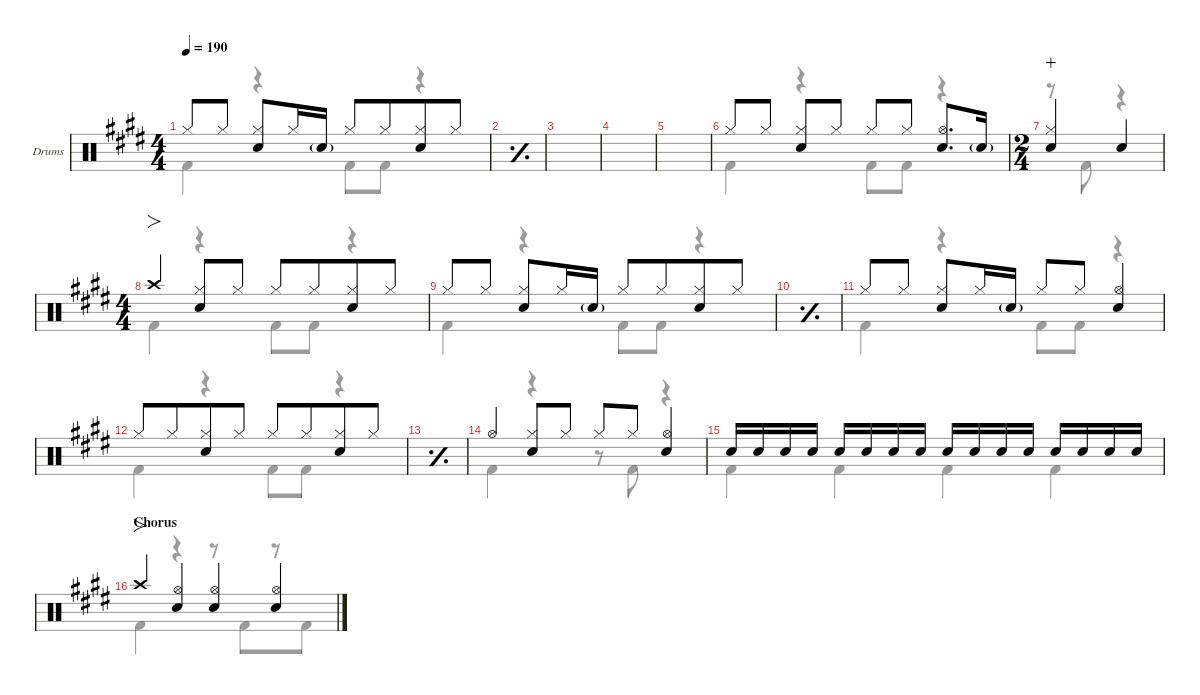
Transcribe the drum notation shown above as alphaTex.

\defaultSystemsLayout 4
\hideDynamics
\bracketExtendMode nobrackets
\firstSystemTrackNameOrientation horizontal
\track ("Drums" "Drums") {defaultSystemsLayout 4 instrument percussion}
\staff {score}
\articulation defaults
\voice
\ts (4 4)
\tempo 190
\clef neutral
\scale
0.244461
\ks e "Hi-Hat (closed)"{acc forcenatural}.8{dy f beam Up} "Hi-Hat (closed)"{acc forcenatural}.8{dy mf beam Up beam split}
("Hi-Hat (closed)"{acc forcenatural} "Snare (hit) 2"{acc forcenatural}).8{dy f beam Up} "Hi-Hat (closed)"{acc forcenatural}.16{dy mf beam Up} "Snare (hit) 2"{g acc forcenatural}.16{beam Up} "Hi-Hat (closed)"{acc forcenatural}.8{dy f beam Up beam merge} "Hi-Hat (closed)"{acc forcenatural}.8{dy mf beam Up beam merge} ("Hi-Hat (closed)"{acc forcenatural} "Snare (hit) 2"{acc forcenatural}).8{dy f beam Up beam merge} "Hi-Hat (closed)"{acc forcenatural}.8{dy mf beam Up beam split} |
\simile simple
\scale
0.24446 |
\scale
0.244461 |
\scale
0.266618 |
\scale
0.24446 |
\simile none
\scale
0.24446 "Hi-Hat (closed)"{acc forcenatural}.8{dy f beam Up} "Hi-Hat (closed)"{acc forcenatural}.8{dy mf beam Up} ("Hi-Hat (closed)"{acc forcenatural} "Snare (hit) 2"{acc forcenatural}).8{dy f beam Up} "Hi-Hat (closed)"{acc forcenatural}.8{dy mf beam Up} "Hi-Hat (closed)"{acc forcenatural}.8{dy f beam Up} "Hi-Hat (closed)"{acc forcenatural}.8{dy mf beam Up beam split} ("Hi-Hat (open)"{acc forcenatural} "Snare (hit) 2"{acc forcenatural}).8{d dy f beam Up} "Snare (hit) 2"{g acc forcenatural}.16{dy mf beam Up} |
\ts (2 4)
\beaming (8 2 2)
\scale
0.244461 ("Snare (hit) 2"{acc forcenatural} "Hi-Hat (closed)"{acc forcenatural}).4{dy f wahc beam Up} "Snare (hit) 2"{acc forcenatural}.4{beam Up} |
\ts (4 4)
\beaming (8 4 4)
\scale
0.266618 "Crash high (hit)"{acc forcenatural}.4{fo beam Up} ("Hi-Hat (closed)"{acc forcenatural} "Snare (hit) 2"{acc forcenatural}).8{beam Up} "Hi-Hat (closed)"{acc forcenatural}.8{dy mf beam Up} "Hi-Hat (closed)"{acc forcenatural}.8{dy f beam Up} "Hi-Hat (closed)"{acc forcenatural}.8{dy mf beam Up} ("Hi-Hat (closed)"{acc forcenatural} "Snare (hit) 2"{acc forcenatural}).8{dy f beam Up} "Hi-Hat (closed)"{acc forcenatural}.8{dy mf beam Up} |
\scale
0.244461 "Hi-Hat (closed)"{acc forcenatural}.8{dy f beam Up} "Hi-Hat (closed)"{acc forcenatural}.8{dy mf beam Up beam split} ("Hi-Hat (closed)"{acc forcenatural} "Snare (hit) 2"{acc forcenatural}).8{dy f beam Up} "Hi-Hat (closed)"{acc forcenatural}.16{dy mf beam Up} "Snare (hit) 2"{g acc forcenatural}.16{beam Up} "Hi-Hat (closed)"{acc forcenatural}.8{dy f beam Up beam merge} "Hi-Hat (closed)"{acc forcenatural}.8{dy mf beam Up beam merge} ("Hi-Hat (closed)"{acc forcenatural} "Snare (hit) 2"{acc forcenatural}).8{dy f beam Up beam merge} "Hi-Hat (closed)"{acc forcenatural}.8{dy mf beam Up beam split} |
\simile simple
\scale
0.24446 |
\simile none
\scale
0.244461 "Hi-Hat (closed)"{acc forcenatural}.8{dy f beam Up} "Hi-Hat (closed)"{acc forcenatural}.8{dy mf beam Up beam split} ("Hi-Hat (closed)"{acc forcenatural} "Snare (hit) 2"{acc forcenatural}).8{dy f beam Up} "Hi-Hat (closed)"{acc forcenatural}.16{dy mf beam Up} "Snare (hit) 2"{g acc forcenatural}.16{beam Up} "Hi-Hat (closed)"{acc forcenatural}.8{dy f beam Up beam merge} "Hi-Hat (closed)"{acc forcenatural}.8{dy mf beam Up beam merge} ("Hi-Hat (open)"{acc forcenatural} "Snare (hit) 2"{acc forcenatural}).4{dy f beam Up beam merge} |
\scale
0.266618 "Hi-Hat (closed)"{acc forcenatural}.8{beam Up beam merge} "Hi-Hat (closed)"{acc forcenatural}.8{dy mf beam Up beam merge} ("Hi-Hat (closed)"{acc forcenatural} "Snare (hit) 2"{acc forcenatural}).8{dy f beam Up beam merge} "Hi-Hat (closed)"{acc forcenatural}.8{dy mf beam Up beam split} "Hi-Hat (closed)"{acc forcenatural}.8{dy f beam Up beam merge} "Hi-Hat (closed)"{acc forcenatural}.8{dy mf beam Up beam merge} ("Hi-Hat (closed)"{acc forcenatural} "Snare (hit) 2"{acc forcenatural}).8{dy f beam Up beam merge} "Hi-Hat (closed)"{acc forcenatural}.8{dy mf beam Up beam split} |
\simile simple
\scale
0.244461 |
\simile none
\scale
0.24446 "Hi-Hat (open)"{acc forcenatural}.4{dy f beam Up} ("Hi-Hat (closed)"{acc forcenatural} "Snare (hit) 2"{acc forcenatural}).8{beam Up beam merge} "Hi-Hat (closed)"{acc forcenatural}.8{dy mf beam Up beam split} "Hi-Hat (closed)"{acc forcenatural}.8{dy f beam Up beam merge} "Hi-Hat (closed)"{acc forcenatural}.8{dy mf beam Up beam merge} ("Hi-Hat (open)"{acc forcenatural} "Snare (hit) 2"{acc forcenatural}).4{dy f beam Up beam merge} |
\scale
0.244461 "Snare (hit) 2"{acc forcenatural}.16{beam Up} "Snare (hit) 2"{acc forcenatural}.16{dy mp beam Up} "Snare (hit) 2"{acc forcenatural}.16{dy mf beam Up} "Snare (hit) 2"{acc forcenatural}.16{dy mp beam Up beam split} "Snare (hit) 2"{acc forcenatural}.16{dy f beam Up} "Snare (hit) 2"{acc forcenatural}.16{dy mp beam Up} "Snare (hit) 2"{acc forcenatural}.16{dy mf beam Up} "Snare (hit) 2"{acc forcenatural}.16{dy mp beam Up beam split} "Snare (hit) 2"{acc forcenatural}.16{dy f beam Up} "Snare (hit) 2"{acc forcenatural}.16{dy mp beam Up} "Snare (hit) 2"{acc forcenatural}.16{dy mf beam Up} "Snare (hit) 2"{acc forcenatural}.16{dy mp beam Up beam split} "Snare (hit) 2"{acc forcenatural}.16{dy f beam Up} "Snare (hit) 2"{acc forcenatural}.16{dy mp beam Up} "Snare (hit) 2"{acc forcenatural}.16{dy mf beam Up} "Snare (hit) 2"{acc forcenatural}.16{dy mp beam Up beam split} |
\section ("" "Chorus")
\scale
0.267605 "Crash high (hit)"{acc forcenatural}.4{fo dy f beam Up} ("Snare (hit) 2"{acc forcenatural} "Hi-Hat (open)"{acc forcenatural}).4{beam Up} ("Snare (hit) 2"{acc forcenatural} "Hi-Hat (open)"{acc forcenatural}).4{beam Up} ("Snare (hit) 2"{acc forcenatural} "Hi-Hat (open)"{acc forcenatural}).4{beam Up}
\voice
\clef neutral
\ottava regular
\simile none
\scale
0.244461
\ks e "Kick (hit) 2"{acc forcenatural}.4{dy f beam Down}
r.4{beam Down} "Kick (hit) 2"{acc forcenatural}.8{beam Down} "Kick (hit) 2"{acc forcenatural}.8{beam Down} r.4{beam Down} |
\simile simple
\scale
0.24446 |
\scale
0.244461 |
\scale
0.266618 |
\scale
0.24446 |
\simile none
\scale
0.24446 "Kick (hit) 2"{acc forcenatural}.4{beam Down} r.4{beam Down} "Kick (hit) 2"{acc forcenatural}.8{beam Down} "Kick (hit) 2"{acc forcenatural}.8{beam Down} r.4{beam Down} |
\scale
0.244461 r.8{beam Down} "Kick (hit) 2"{acc forcenatural}.8{beam Down} r.4{beam Down} |
\scale
0.266618 "Kick (hit) 2"{acc forcenatural}.4{beam Down} r.4{beam Down} "Kick (hit) 2"{acc forcenatural}.8{beam Down} "Kick (hit) 2"{acc forcenatural}.8{beam Down} r.4{beam Down} |
\scale
0.244461 "Kick (hit) 2"{acc forcenatural}.4{beam Down} r.4{beam Down} "Kick (hit) 2"{acc forcenatural}.8{beam Down} "Kick (hit) 2"{acc forcenatural}.8{beam Down} r.4{beam Down} |
\simile simple
\scale
0.24446 |
\simile none
\scale
0.244461 "Kick (hit) 2"{acc forcenatural}.4{beam Down} r.4{beam Down} "Kick (hit) 2"{acc forcenatural}.8{beam Down} "Kick (hit) 2"{acc forcenatural}.8{beam Down} r.4{beam Down} |
\scale
0.266618 "Kick (hit) 2"{acc forcenatural}.4{beam Down} r.4{beam Down} "Kick (hit) 2"{acc forcenatural}.8{beam Down} "Kick (hit) 2"{acc forcenatural}.8{beam Down} r.4{beam Down} |
\simile simple
\scale
0.244461 |
\simile none
\scale
0.24446 "Kick (hit) 2"{acc forcenatural}.4{beam Down} r.4{beam Down} r.8{beam Down} "Kick (hit) 2"{acc forcenatural}.8{beam Down} r.4{beam Down} |
\scale
0.244461 "Kick (hit) 2"{acc forcenatural}.4{beam Down} "Kick (hit) 2"{acc forcenatural}.4{beam Down} "Kick (hit) 2"{acc forcenatural}.4{beam Down} "Kick (hit) 2"{acc forcenatural}.4{beam Down} |
\scale
0.267605 "Kick (hit) 2"{acc forcenatural}.4{beam Down} r.4{beam Down} r.8{beam Down} "Kick (hit) 2"{acc forcenatural}.8{beam Down} r.8{beam Down} "Kick (hit) 2"{acc forcenatural}.8{beam Down}
